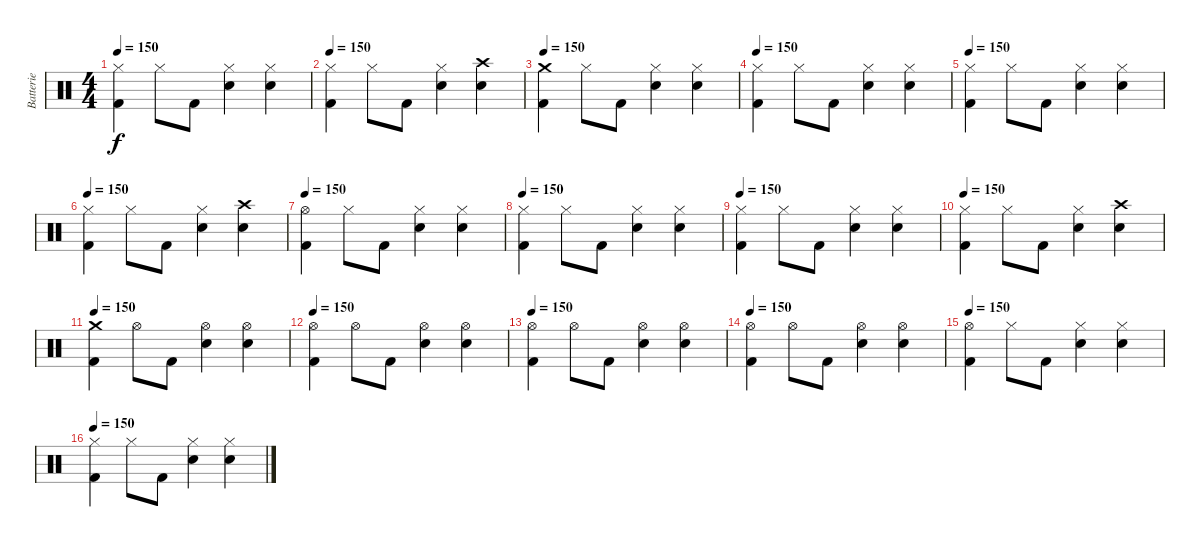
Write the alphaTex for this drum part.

\track ("Batterie" "Batterie") {instrument percussion}
\staff {score}
\articulation defaults
\ts (4 4)
\tempo 150
\clef neutral
\ks c
("Hi-Hat (closed)" "Kick (hit) 2").4{dy f} "Hi-Hat (closed)".8 "Kick (hit) 2".8 ("Hi-Hat (closed)" "Snare (hit) 2").4 ("Hi-Hat (closed)" "Snare (hit) 2").4 |
\tempo 150
("Hi-Hat (closed)" "Kick (hit) 2").4 "Hi-Hat (closed)".8 "Kick (hit) 2".8 ("Hi-Hat (closed)" "Snare (hit) 2").4 ("Crash high (hit)" "Snare (hit) 2").4 |
\tempo 150
("Crash medium (hit)" "Kick (hit) 2").4 "Hi-Hat (closed)".8 "Kick (hit) 2".8 ("Hi-Hat (closed)" "Snare (hit) 2").4 ("Hi-Hat (closed)" "Snare (hit) 2").4 |
\tempo 150
("Hi-Hat (closed)" "Kick (hit) 2").4 "Hi-Hat (closed)".8 "Kick (hit) 2".8 ("Hi-Hat (closed)" "Snare (hit) 2").4 ("Hi-Hat (closed)" "Snare (hit) 2").4 |
\tempo 150
("Hi-Hat (closed)" "Kick (hit) 2").4 "Hi-Hat (closed)".8 "Kick (hit) 2".8 ("Hi-Hat (closed)" "Snare (hit) 2").4 ("Hi-Hat (closed)" "Snare (hit) 2").4 |
\tempo 150
("Hi-Hat (closed)" "Kick (hit) 2").4 "Hi-Hat (closed)".8 "Kick (hit) 2".8 ("Hi-Hat (closed)" "Snare (hit) 2").4 ("Crash high (hit)" "Snare (hit) 2").4 |
\tempo 150
("Hi-Hat (open)" "Kick (hit) 2").4 "Hi-Hat (closed)".8 "Kick (hit) 2".8 ("Hi-Hat (closed)" "Snare (hit) 2").4 ("Hi-Hat (closed)" "Snare (hit) 2").4 |
\tempo 150
("Hi-Hat (closed)" "Kick (hit) 2").4 "Hi-Hat (closed)".8 "Kick (hit) 2".8 ("Hi-Hat (closed)" "Snare (hit) 2").4 ("Hi-Hat (closed)" "Snare (hit) 2").4 |
\tempo 150
("Hi-Hat (closed)" "Kick (hit) 2").4 "Hi-Hat (closed)".8 "Kick (hit) 2".8 ("Hi-Hat (closed)" "Snare (hit) 2").4 ("Hi-Hat (closed)" "Snare (hit) 2").4 |
\tempo 150
("Hi-Hat (closed)" "Kick (hit) 2").4 "Hi-Hat (closed)".8 "Kick (hit) 2".8 ("Hi-Hat (closed)" "Snare (hit) 2").4 ("Crash high (hit)" "Snare (hit) 2").4 |
\tempo 150
("Crash medium (hit)" "Kick (hit) 2").4 "Hi-Hat (open)".8 "Kick (hit) 2".8 ("Hi-Hat (open)" "Snare (hit) 2").4 ("Hi-Hat (open)" "Snare (hit) 2").4 |
\tempo 150
("Hi-Hat (open)" "Kick (hit) 2").4 "Hi-Hat (open)".8 "Kick (hit) 2".8 ("Hi-Hat (open)" "Snare (hit) 2").4 ("Hi-Hat (open)" "Snare (hit) 2").4 |
\tempo 150
("Hi-Hat (open)" "Kick (hit) 2").4 "Hi-Hat (open)".8 "Kick (hit) 2".8 ("Hi-Hat (open)" "Snare (hit) 2").4 ("Hi-Hat (open)" "Snare (hit) 2").4 |
\tempo 150
("Hi-Hat (open)" "Kick (hit) 2").4 "Hi-Hat (open)".8 "Kick (hit) 2".8 ("Hi-Hat (open)" "Snare (hit) 2").4 ("Hi-Hat (open)" "Snare (hit) 2").4 |
\tempo 150
("Hi-Hat (open)" "Kick (hit) 2").4 "Hi-Hat (closed)".8 "Kick (hit) 2".8 ("Hi-Hat (closed)" "Snare (hit) 2").4 ("Hi-Hat (closed)" "Snare (hit) 2").4 |
\tempo 150
("Hi-Hat (closed)" "Kick (hit) 2").4 "Hi-Hat (closed)".8 "Kick (hit) 2".8 ("Hi-Hat (closed)" "Snare (hit) 2").4 ("Hi-Hat (closed)" "Snare (hit) 2").4
